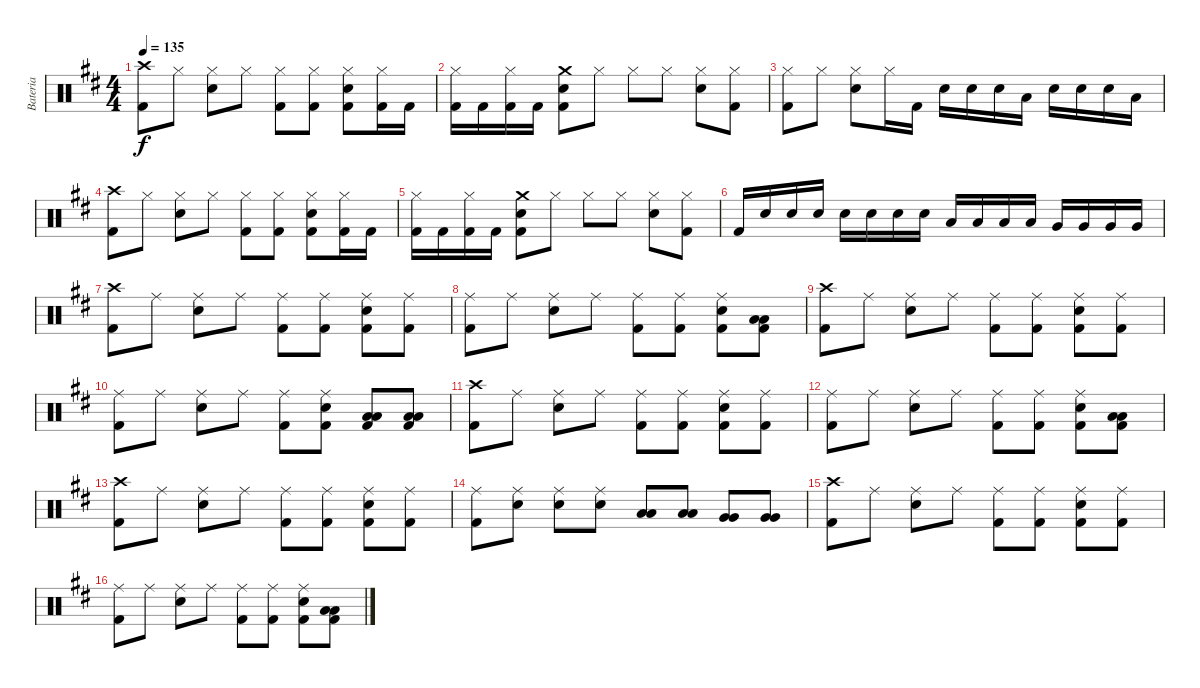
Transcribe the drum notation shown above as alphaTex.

\track ("Bateria" "Bateria") {instrument percussion}
\staff {score}
\articulation defaults
\ts (4 4)
\tempo 135
\clef neutral
\ks d
("Crash high (hit)" "Kick (hit) 2").8{dy f} "Hi-Hat (closed)".8 ("Hi-Hat (closed)" "Snare (hit) 2").8 "Hi-Hat (closed)".8 ("Hi-Hat (closed)" "Kick (hit) 2").8 ("Hi-Hat (closed)" "Kick (hit) 2").8 ("Hi-Hat (closed)" "Snare (hit) 2" "Kick (hit) 2").8 ("Hi-Hat (closed)" "Kick (hit) 2").16 "Kick (hit) 2".16 |
("Hi-Hat (closed)" "Kick (hit) 2").16 "Kick (hit) 2".16 ("Hi-Hat (closed)" "Kick (hit) 2").16 "Kick (hit) 2".16 ("Crash medium (hit)" "Snare (hit) 2" "Kick (hit) 2").8 "Hi-Hat (closed)".8 "Hi-Hat (closed)".8 "Hi-Hat (closed)".8 ("Hi-Hat (closed)" "Snare (hit) 2").8 ("Hi-Hat (closed)" "Kick (hit) 2").8 |
("Hi-Hat (closed)" "Kick (hit) 2").8 "Hi-Hat (closed)".8 ("Hi-Hat (closed)" "Snare (hit) 2").8 "Hi-Hat (closed)".16 "Kick (hit) 2".16 "Snare (hit) 2".16 "Snare (hit) 2".16 "Snare (hit) 2".16 "Low Tom (hit)".16 "Snare (hit) 2".16 "Snare (hit) 2".16 "Snare (hit) 2".16 "Low Tom (hit)".16 |
("Crash high (hit)" "Kick (hit) 2").8 "Hi-Hat (closed)".8 ("Hi-Hat (closed)" "Snare (hit) 2").8 "Hi-Hat (closed)".8 ("Hi-Hat (closed)" "Kick (hit) 2").8 ("Hi-Hat (closed)" "Kick (hit) 2").8 ("Hi-Hat (closed)" "Snare (hit) 2" "Kick (hit) 2").8 ("Hi-Hat (closed)" "Kick (hit) 2").16 "Kick (hit) 2".16 |
("Hi-Hat (closed)" "Kick (hit) 2").16 "Kick (hit) 2".16 ("Hi-Hat (closed)" "Kick (hit) 2").16 "Kick (hit) 2".16 ("Crash medium (hit)" "Snare (hit) 2" "Kick (hit) 2").8 "Hi-Hat (closed)".8 "Hi-Hat (closed)".8 "Hi-Hat (closed)".8 ("Hi-Hat (closed)" "Snare (hit) 2").8 ("Hi-Hat (closed)" "Kick (hit) 2").8 |
"Kick (hit) 2".16 "Snare (hit) 2".16 "Snare (hit) 2".16 "Snare (hit) 2".16 "Snare (hit) 2".16 "Snare (hit) 2".16 "Snare (hit) 2".16 "Snare (hit) 2".16 "Low Tom (hit)".16 "Low Tom (hit)".16 "Low Tom (hit)".16 "Low Tom (hit)".16 "Very Low Tom (hit)".16 "Very Low Tom (hit)".16 "Very Low Tom (hit)".16 "Very Low Tom (hit)".16 |
("Crash high (hit)" "Kick (hit) 2").8 "Ride (middle)".8 ("Ride (middle)" "Snare (hit) 2").8 "Ride (middle)".8 ("Ride (middle)" "Kick (hit) 2").8 ("Ride (middle)" "Kick (hit) 2").8 ("Ride (middle)" "Snare (hit) 2" "Kick (hit) 2").8 ("Ride (middle)" "Kick (hit) 2").8 |
("Ride (middle)" "Kick (hit) 2").8 "Ride (middle)".8 ("Ride (middle)" "Snare (hit) 2").8 "Ride (middle)".8 ("Ride (middle)" "Kick (hit) 2").8 ("Ride (middle)" "Kick (hit) 2").8 ("Ride (middle)" "Snare (hit) 2" "Kick (hit) 2").8 ("Low Tom (hit)" "Low Tom (hit)" "Kick (hit) 2").8 |
("Crash high (hit)" "Kick (hit) 2").8 "Ride (middle)".8 ("Ride (middle)" "Snare (hit) 2").8 "Ride (middle)".8 ("Ride (middle)" "Kick (hit) 2").8 ("Ride (middle)" "Kick (hit) 2").8 ("Ride (middle)" "Snare (hit) 2" "Kick (hit) 2").8 ("Ride (middle)" "Kick (hit) 2").8 |
("Ride (middle)" "Kick (hit) 2").8 "Ride (middle)".8 ("Ride (middle)" "Snare (hit) 2").8 "Ride (middle)".8 ("Ride (middle)" "Kick (hit) 2").8 ("Ride (middle)" "Snare (hit) 2" "Kick (hit) 2").8 ("Low Tom (hit)" "Low Tom (hit)" "Kick (hit) 2").8 ("Low Tom (hit)" "Low Tom (hit)" "Kick (hit) 2").8 |
("Crash high (hit)" "Kick (hit) 2").8 "Ride (middle)".8 ("Ride (middle)" "Snare (hit) 2").8 "Ride (middle)".8 ("Ride (middle)" "Kick (hit) 2").8 ("Ride (middle)" "Kick (hit) 2").8 ("Ride (middle)" "Snare (hit) 2" "Kick (hit) 2").8 ("Ride (middle)" "Kick (hit) 2").8 |
("Ride (middle)" "Kick (hit) 2").8 "Ride (middle)".8 ("Ride (middle)" "Snare (hit) 2").8 "Ride (middle)".8 ("Ride (middle)" "Kick (hit) 2").8 ("Ride (middle)" "Kick (hit) 2").8 ("Ride (middle)" "Snare (hit) 2" "Kick (hit) 2").8 ("Low Tom (hit)" "Low Tom (hit)" "Kick (hit) 2").8 |
("Crash high (hit)" "Kick (hit) 2").8 "Ride (middle)".8 ("Ride (middle)" "Snare (hit) 2").8 "Ride (middle)".8 ("Ride (middle)" "Kick (hit) 2").8 ("Ride (middle)" "Kick (hit) 2").8 ("Ride (middle)" "Snare (hit) 2" "Kick (hit) 2").8 ("Ride (middle)" "Kick (hit) 2").8 |
("Ride (middle)" "Kick (hit) 2").8 ("Ride (middle)" "Snare (hit) 2").8 ("Ride (middle)" "Snare (hit) 2").8 ("Ride (middle)" "Snare (hit) 2").8 ("Low Tom (hit)" "Low Tom (hit)").8 ("Low Tom (hit)" "Low Tom (hit)").8 ("Very Low Tom (hit)" "Very Low Tom (hit)").8 ("Very Low Tom (hit)" "Very Low Tom (hit)").8 |
("Crash high (hit)" "Kick (hit) 2").8 "Ride (middle)".8 ("Ride (middle)" "Snare (hit) 2").8 "Ride (middle)".8 ("Ride (middle)" "Kick (hit) 2").8 ("Ride (middle)" "Kick (hit) 2").8 ("Ride (middle)" "Snare (hit) 2" "Kick (hit) 2").8 ("Ride (middle)" "Kick (hit) 2").8 |
("Ride (middle)" "Kick (hit) 2").8 "Ride (middle)".8 ("Ride (middle)" "Snare (hit) 2").8 "Ride (middle)".8 ("Ride (middle)" "Kick (hit) 2").8 ("Ride (middle)" "Kick (hit) 2").8 ("Ride (middle)" "Snare (hit) 2" "Kick (hit) 2").8 ("Low Tom (hit)" "Low Tom (hit)" "Kick (hit) 2").8
